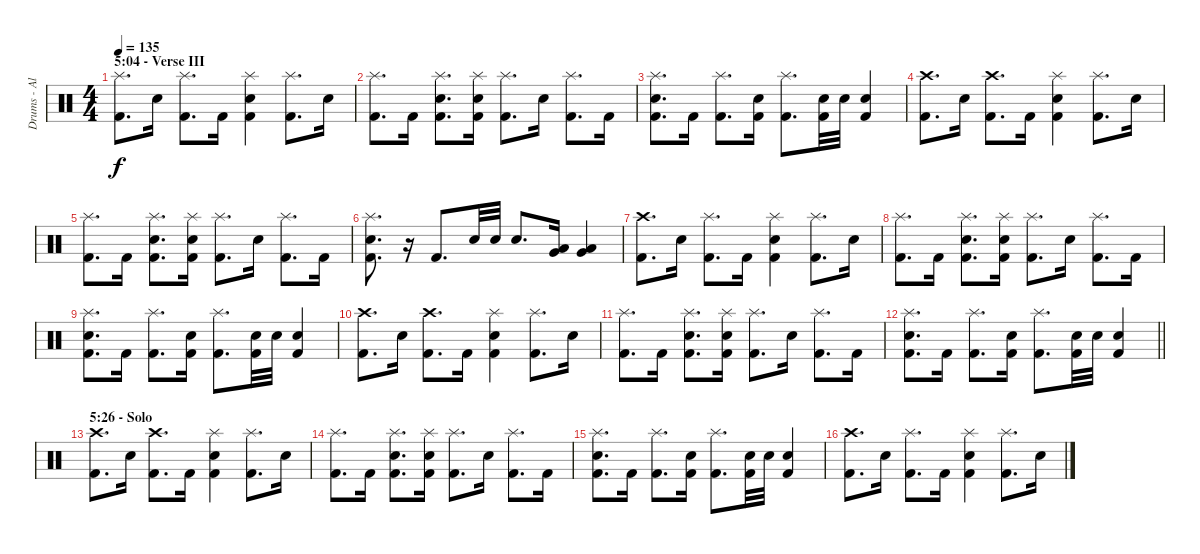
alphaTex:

\track ("Drums - Alex Wank" "Drums - Al") {instrument percussion}
\staff {score}
\articulation defaults
\ts (4 4)
\section ("" "5:04 - Verse III")
\tempo 135
\clef neutral
\ks c
("Splash (hit)" "Kick (hit) 2").8{d dy f} "Electric Snare (hit)".16 ("Splash (hit)" "Kick (hit) 2").8{d} "Kick (hit) 2".16 ("Splash (hit)" "Electric Snare (hit)" "Kick (hit) 2").4 ("Splash (hit)" "Kick (hit) 2").8{d} "Electric Snare (hit)".16 |
("Splash (hit)" "Kick (hit) 2").8{d} "Kick (hit) 2".16 ("Splash (hit)" "Electric Snare (hit)" "Kick (hit) 2").8{d} ("Splash (hit)" "Electric Snare (hit)" "Kick (hit) 2").16 ("Splash (hit)" "Kick (hit) 2").8{d} "Electric Snare (hit)".16 ("Splash (hit)" "Kick (hit) 2").8{d} "Kick (hit) 2".16 |
("Splash (hit)" "Electric Snare (hit)" "Kick (hit) 2").8{d} "Kick (hit) 2".16 ("Splash (hit)" "Kick (hit) 2").8{d} ("Electric Snare (hit)" "Kick (hit) 2").16 ("Splash (hit)" "Kick (hit) 2").8{d} ("Electric Snare (hit)" "Kick (hit) 2").32 "Electric Snare (hit)".32 ("Electric Snare (hit)" "Kick (hit) 2").4 |
("Crash high (hit)" "Kick (hit) 2").8{d} "Electric Snare (hit)".16 ("Crash high (hit)" "Kick (hit) 2").8{d} "Kick (hit) 2".16 ("Splash (hit)" "Electric Snare (hit)" "Kick (hit) 2").4 ("Splash (hit)" "Kick (hit) 2").8{d} "Electric Snare (hit)".16 |
("Splash (hit)" "Kick (hit) 2").8{d} "Kick (hit) 2".16 ("Splash (hit)" "Electric Snare (hit)" "Kick (hit) 2").8{d} ("Splash (hit)" "Electric Snare (hit)" "Kick (hit) 2").16 ("Splash (hit)" "Kick (hit) 2").8{d} "Electric Snare (hit)".16 ("Splash (hit)" "Kick (hit) 2").8{d} "Kick (hit) 2".16 |
("Splash (hit)" "Electric Snare (hit)" "Kick (hit) 2").8{d} r.16 "Kick (hit) 2".8{d} "Electric Snare (hit)".32 "Electric Snare (hit)".32 "Electric Snare (hit)".8{d} ("Very Low Tom (hit)" "Low Floor Tom (hit)").16 ("Very Low Tom (hit)" "Low Floor Tom (hit)").4 |
("Crash high (hit)" "Kick (hit) 2").8{d} "Electric Snare (hit)".16 ("Splash (hit)" "Kick (hit) 2").8{d} "Kick (hit) 2".16 ("Splash (hit)" "Electric Snare (hit)" "Kick (hit) 2").4 ("Splash (hit)" "Kick (hit) 2").8{d} "Electric Snare (hit)".16 |
("Splash (hit)" "Kick (hit) 2").8{d} "Kick (hit) 2".16 ("Splash (hit)" "Electric Snare (hit)" "Kick (hit) 2").8{d} ("Splash (hit)" "Electric Snare (hit)" "Kick (hit) 2").16 ("Splash (hit)" "Kick (hit) 2").8{d} "Electric Snare (hit)".16 ("Splash (hit)" "Kick (hit) 2").8{d} "Kick (hit) 2".16 |
("Splash (hit)" "Electric Snare (hit)" "Kick (hit) 2").8{d} "Kick (hit) 2".16 ("Splash (hit)" "Kick (hit) 2").8{d} ("Electric Snare (hit)" "Kick (hit) 2").16 ("Splash (hit)" "Kick (hit) 2").8{d} ("Electric Snare (hit)" "Kick (hit) 2").32 "Electric Snare (hit)".32 ("Electric Snare (hit)" "Kick (hit) 2").4 |
("Crash high (hit)" "Kick (hit) 2").8{d} "Electric Snare (hit)".16 ("Crash high (hit)" "Kick (hit) 2").8{d} "Kick (hit) 2".16 ("Splash (hit)" "Electric Snare (hit)" "Kick (hit) 2").4 ("Splash (hit)" "Kick (hit) 2").8{d} "Electric Snare (hit)".16 |
("Splash (hit)" "Kick (hit) 2").8{d} "Kick (hit) 2".16 ("Splash (hit)" "Electric Snare (hit)" "Kick (hit) 2").8{d} ("Splash (hit)" "Electric Snare (hit)" "Kick (hit) 2").16 ("Splash (hit)" "Kick (hit) 2").8{d} "Electric Snare (hit)".16 ("Splash (hit)" "Kick (hit) 2").8{d} "Kick (hit) 2".16 |
\barLineRight lightlight
("Splash (hit)" "Electric Snare (hit)" "Kick (hit) 2").8{d} "Kick (hit) 2".16 ("Splash (hit)" "Kick (hit) 2").8{d} ("Electric Snare (hit)" "Kick (hit) 2").16 ("Splash (hit)" "Kick (hit) 2").8{d} ("Electric Snare (hit)" "Kick (hit) 2").32 "Electric Snare (hit)".32 ("Electric Snare (hit)" "Kick (hit) 2").4 |
\section ("" "5:26 - Solo")
("Crash high (hit)" "Kick (hit) 2").8{d} "Electric Snare (hit)".16 ("Crash high (hit)" "Kick (hit) 2").8{d} "Kick (hit) 2".16 ("Splash (hit)" "Electric Snare (hit)" "Kick (hit) 2").4 ("Splash (hit)" "Kick (hit) 2").8{d} "Electric Snare (hit)".16 |
("Splash (hit)" "Kick (hit) 2").8{d} "Kick (hit) 2".16 ("Splash (hit)" "Electric Snare (hit)" "Kick (hit) 2").8{d} ("Splash (hit)" "Electric Snare (hit)" "Kick (hit) 2").16 ("Splash (hit)" "Kick (hit) 2").8{d} "Electric Snare (hit)".16 ("Splash (hit)" "Kick (hit) 2").8{d} "Kick (hit) 2".16 |
("Splash (hit)" "Electric Snare (hit)" "Kick (hit) 2").8{d} "Kick (hit) 2".16 ("Splash (hit)" "Kick (hit) 2").8{d} ("Electric Snare (hit)" "Kick (hit) 2").16 ("Splash (hit)" "Kick (hit) 2").8{d} ("Electric Snare (hit)" "Kick (hit) 2").32 "Electric Snare (hit)".32 ("Electric Snare (hit)" "Kick (hit) 2").4 |
("Crash high (hit)" "Kick (hit) 2").8{d} "Electric Snare (hit)".16 ("Splash (hit)" "Kick (hit) 2").8{d} "Kick (hit) 2".16 ("Splash (hit)" "Electric Snare (hit)" "Kick (hit) 2").4 ("Splash (hit)" "Kick (hit) 2").8{d} "Electric Snare (hit)".16
